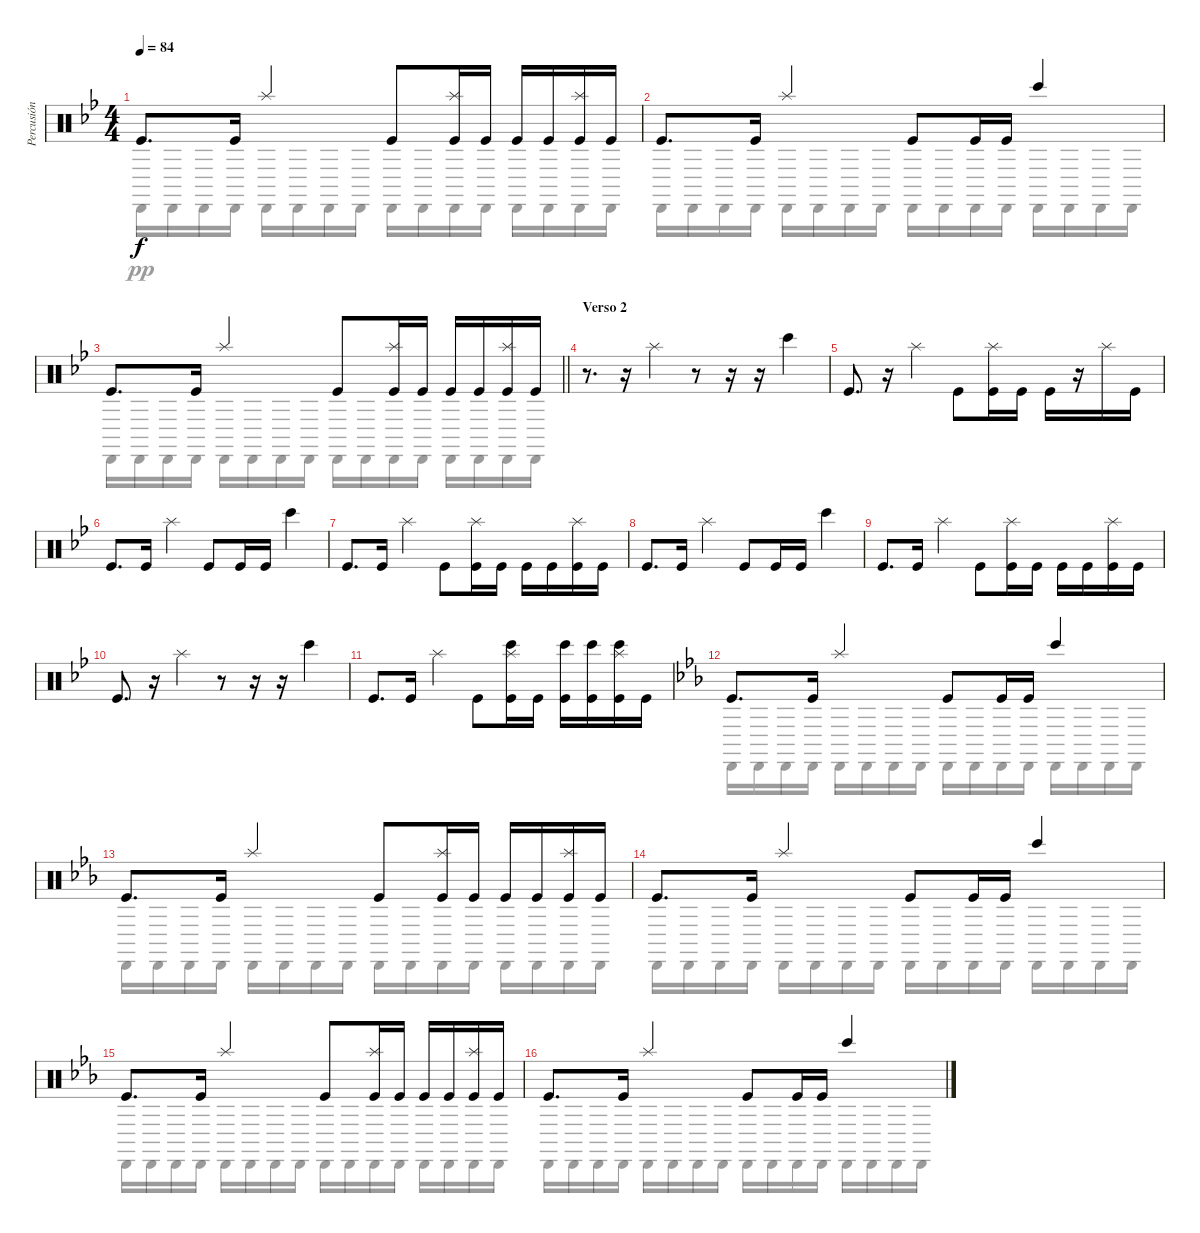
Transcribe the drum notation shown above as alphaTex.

\track ("Percusión" "Percusión") {instrument percussion}
\staff {score}
\articulation defaults
\voice
\ts (4 4)
\tempo 84
\clef neutral
\ks bb "Kick (hit)".8{d dy f} "Kick (hit)".16 "Splash (hit)".4 "Kick (hit)".8
("Splash (hit)" "Kick (hit)").16 "Kick (hit)".16 "Kick (hit)".16 "Kick (hit)".16 ("Splash (hit)" "Kick (hit)").16 "Kick (hit)".16 |
"Kick (hit)".8{d} "Kick (hit)".16 "Splash (hit)".4 "Kick (hit)".8 "Kick (hit)".16 "Kick (hit)".16 "Bongo High (hit)".4 |
\barLineRight lightlight "Kick (hit)".8{d} "Kick (hit)".16 "Splash (hit)".4 "Kick (hit)".8
("Splash (hit)" "Kick (hit)").16 "Kick (hit)".16 "Kick (hit)".16 "Kick (hit)".16 ("Splash (hit)" "Kick (hit)").16 "Kick (hit)".16 |
\section ("" "Verso 2")
r.8{d} r.16 "Splash (hit)".4 r.8 r.16 r.16 "Bongo High (hit)".4 |
"Kick (hit)".8{d} r.16 "Splash (hit)".4 "Kick (hit)".8 ("Splash (hit)" "Kick (hit)").16 "Kick (hit)".16 "Kick (hit)".16 r.16 "Splash (hit)".16 "Kick (hit)".16 |
"Kick (hit)".8{d} "Kick (hit)".16 "Splash (hit)".4 "Kick (hit)".8 "Kick (hit)".16 "Kick (hit)".16 "Bongo High (hit)".4 |
"Kick (hit)".8{d} "Kick (hit)".16 "Splash (hit)".4 "Kick (hit)".8 ("Splash (hit)" "Kick (hit)").16 "Kick (hit)".16 "Kick (hit)".16 "Kick (hit)".16 ("Splash (hit)" "Kick (hit)").16 "Kick (hit)".16 |
"Kick (hit)".8{d} "Kick (hit)".16 "Splash (hit)".4 "Kick (hit)".8 "Kick (hit)".16 "Kick (hit)".16 "Bongo High (hit)".4 |
"Kick (hit)".8{d} "Kick (hit)".16 "Splash (hit)".4 "Kick (hit)".8 ("Splash (hit)" "Kick (hit)").16 "Kick (hit)".16 "Kick (hit)".16 "Kick (hit)".16 ("Splash (hit)" "Kick (hit)").16 "Kick (hit)".16 |
"Kick (hit)".8{d} r.16 "Splash (hit)".4 r.8 r.16 r.16 "Bongo High (hit)".4 |
"Kick (hit)".8{d} "Kick (hit)".16 "Splash (hit)".4 "Kick (hit)".8 ("Bongo High (hit)" "Splash (hit)" "Kick (hit)").16 "Kick (hit)".16 ("Bongo High (hit)" "Kick (hit)").16 ("Bongo High (hit)" "Kick (hit)").16 ("Bongo High (hit)" "Splash (hit)" "Kick (hit)").16 "Kick (hit)".16 |
\ks eb "Kick (hit)".8{d} "Kick (hit)".16 "Splash (hit)".4 "Kick (hit)".8 "Kick (hit)".16 "Kick (hit)".16 "Bongo High (hit)".4
|
"Kick (hit)".8{d} "Kick (hit)".16 "Splash (hit)".4 "Kick (hit)".8 ("Splash (hit)" "Kick (hit)").16 "Kick (hit)".16 "Kick (hit)".16 "Kick (hit)".16 ("Splash (hit)" "Kick (hit)").16 "Kick (hit)".16 |
"Kick (hit)".8{d} "Kick (hit)".16 "Splash (hit)".4 "Kick (hit)".8 "Kick (hit)".16 "Kick (hit)".16 "Bongo High (hit)".4 |
"Kick (hit)".8{d} "Kick (hit)".16 "Splash (hit)".4 "Kick (hit)".8 ("Splash (hit)" "Kick (hit)").16 "Kick (hit)".16 "Kick (hit)".16 "Kick (hit)".16 ("Splash (hit)" "Kick (hit)").16 "Kick (hit)".16 |
"Kick (hit)".8{d} "Kick (hit)".16 "Splash (hit)".4 "Kick (hit)".8 "Kick (hit)".16 "Kick (hit)".16 "Bongo High (hit)".4
\voice
\clef neutral
\ottava regular
\simile none
\ks bb "Cabasa (hit)".16{dy pp} "Cabasa (hit)".16 "Cabasa (hit)".16 "Cabasa (hit)".16 "Cabasa (hit)".16 "Cabasa (hit)".16 "Cabasa (hit)".16 "Cabasa (hit)".16 "Cabasa (hit)".16 "Cabasa (hit)".16 "Cabasa (hit)".16 "Cabasa (hit)".16 "Cabasa (hit)".16 "Cabasa (hit)".16 "Cabasa (hit)".16 "Cabasa (hit)".16
|
"Cabasa (hit)".16 "Cabasa (hit)".16 "Cabasa (hit)".16 "Cabasa (hit)".16 "Cabasa (hit)".16 "Cabasa (hit)".16 "Cabasa (hit)".16 "Cabasa (hit)".16 "Cabasa (hit)".16 "Cabasa (hit)".16 "Cabasa (hit)".16 "Cabasa (hit)".16 "Cabasa (hit)".16 "Cabasa (hit)".16 "Cabasa (hit)".16 "Cabasa (hit)".16 |
\barLineRight lightlight "Cabasa (hit)".16 "Cabasa (hit)".16 "Cabasa (hit)".16 "Cabasa (hit)".16 "Cabasa (hit)".16 "Cabasa (hit)".16 "Cabasa (hit)".16 "Cabasa (hit)".16 "Cabasa (hit)".16 "Cabasa (hit)".16 "Cabasa (hit)".16 "Cabasa (hit)".16 "Cabasa (hit)".16 "Cabasa (hit)".16 "Cabasa (hit)".16 "Cabasa (hit)".16
|
|
|
|
|
|
|
|
|
\ks eb "Cabasa (hit)".16 "Cabasa (hit)".16 "Cabasa (hit)".16 "Cabasa (hit)".16 "Cabasa (hit)".16 "Cabasa (hit)".16 "Cabasa (hit)".16 "Cabasa (hit)".16 "Cabasa (hit)".16 "Cabasa (hit)".16 "Cabasa (hit)".16 "Cabasa (hit)".16 "Cabasa (hit)".16 "Cabasa (hit)".16 "Cabasa (hit)".16 "Cabasa (hit)".16
|
"Cabasa (hit)".16 "Cabasa (hit)".16 "Cabasa (hit)".16 "Cabasa (hit)".16 "Cabasa (hit)".16 "Cabasa (hit)".16 "Cabasa (hit)".16 "Cabasa (hit)".16 "Cabasa (hit)".16 "Cabasa (hit)".16 "Cabasa (hit)".16 "Cabasa (hit)".16 "Cabasa (hit)".16 "Cabasa (hit)".16 "Cabasa (hit)".16 "Cabasa (hit)".16 |
"Cabasa (hit)".16 "Cabasa (hit)".16 "Cabasa (hit)".16 "Cabasa (hit)".16 "Cabasa (hit)".16 "Cabasa (hit)".16 "Cabasa (hit)".16 "Cabasa (hit)".16 "Cabasa (hit)".16 "Cabasa (hit)".16 "Cabasa (hit)".16 "Cabasa (hit)".16 "Cabasa (hit)".16 "Cabasa (hit)".16 "Cabasa (hit)".16 "Cabasa (hit)".16 |
"Cabasa (hit)".16 "Cabasa (hit)".16 "Cabasa (hit)".16 "Cabasa (hit)".16 "Cabasa (hit)".16 "Cabasa (hit)".16 "Cabasa (hit)".16 "Cabasa (hit)".16 "Cabasa (hit)".16 "Cabasa (hit)".16 "Cabasa (hit)".16 "Cabasa (hit)".16 "Cabasa (hit)".16 "Cabasa (hit)".16 "Cabasa (hit)".16 "Cabasa (hit)".16 |
"Cabasa (hit)".16 "Cabasa (hit)".16 "Cabasa (hit)".16 "Cabasa (hit)".16 "Cabasa (hit)".16 "Cabasa (hit)".16 "Cabasa (hit)".16 "Cabasa (hit)".16 "Cabasa (hit)".16 "Cabasa (hit)".16 "Cabasa (hit)".16 "Cabasa (hit)".16 "Cabasa (hit)".16 "Cabasa (hit)".16 "Cabasa (hit)".16 "Cabasa (hit)".16
